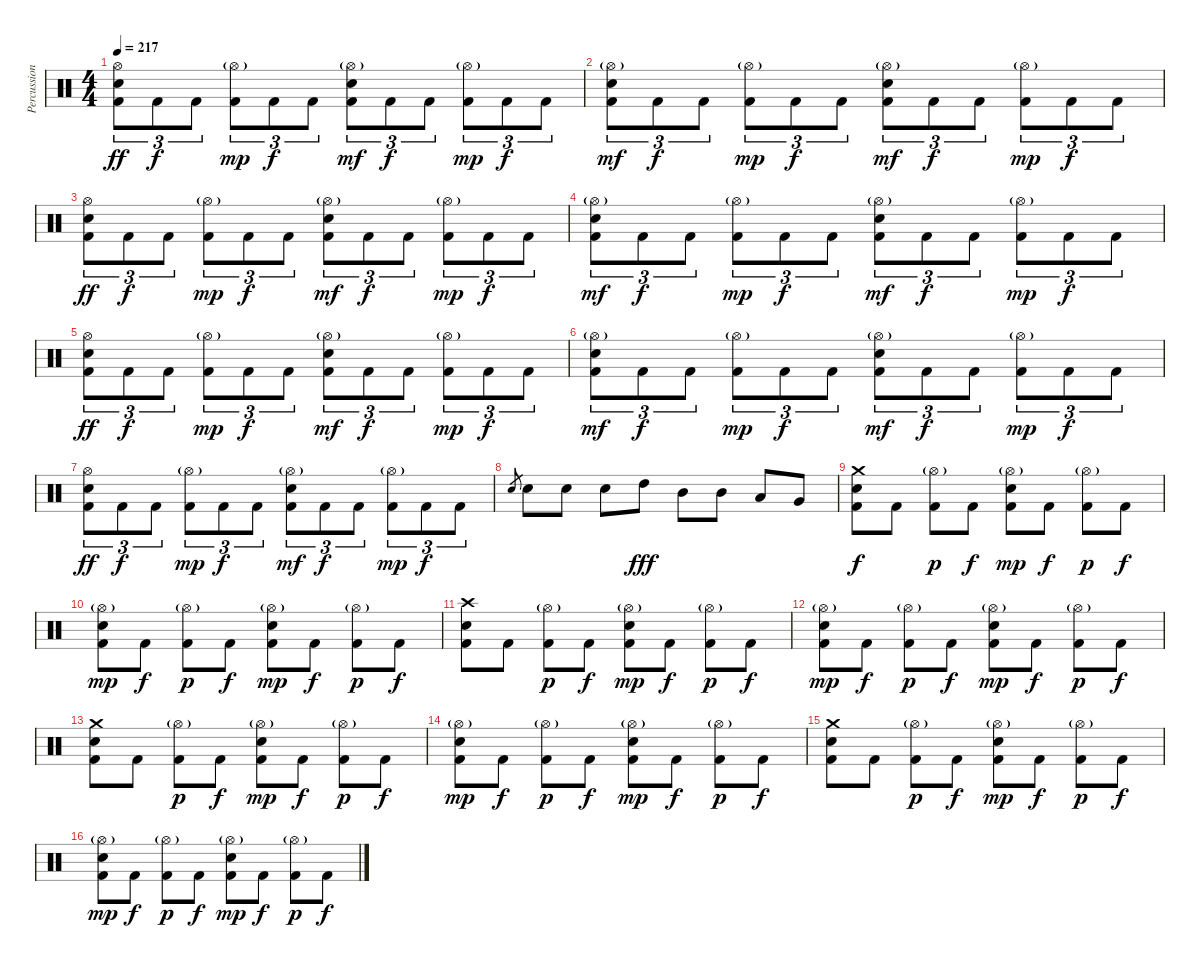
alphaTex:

\track ("Percussion" "Percussion") {instrument percussion}
\staff {score}
\articulation defaults
\ts (4 4)
\tempo 217
\clef neutral
\ks c
("Hi-Hat (open)" "Electric Snare (hit)" "Kick (hit) 2").8{tu (3 2) dy ff} "Kick (hit) 2".8{tu (3 2) dy f} "Kick (hit) 2".8{tu (3 2)} ("Hi-Hat (open)"{g} "Kick (hit) 2").8{tu (3 2) dy mp} "Kick (hit) 2".8{tu (3 2) dy f} "Kick (hit) 2".8{tu (3 2)} ("Hi-Hat (open)"{g} "Electric Snare (hit)" "Kick (hit) 2").8{tu (3 2) dy mf} "Kick (hit) 2".8{tu (3 2) dy f} "Kick (hit) 2".8{tu (3 2)} ("Hi-Hat (open)"{g} "Kick (hit) 2").8{tu (3 2) dy mp} "Kick (hit) 2".8{tu (3 2) dy f} "Kick (hit) 2".8{tu (3 2)} |
("Hi-Hat (open)"{g} "Electric Snare (hit)" "Kick (hit) 2").8{tu (3 2) dy mf} "Kick (hit) 2".8{tu (3 2) dy f} "Kick (hit) 2".8{tu (3 2)} ("Hi-Hat (open)"{g} "Kick (hit) 2").8{tu (3 2) dy mp} "Kick (hit) 2".8{tu (3 2) dy f} "Kick (hit) 2".8{tu (3 2)} ("Hi-Hat (open)"{g} "Electric Snare (hit)" "Kick (hit) 2").8{tu (3 2) dy mf} "Kick (hit) 2".8{tu (3 2) dy f} "Kick (hit) 2".8{tu (3 2)} ("Hi-Hat (open)"{g} "Kick (hit) 2").8{tu (3 2) dy mp} "Kick (hit) 2".8{tu (3 2) dy f} "Kick (hit) 2".8{tu (3 2)} |
("Hi-Hat (open)" "Electric Snare (hit)" "Kick (hit) 2").8{tu (3 2) dy ff} "Kick (hit) 2".8{tu (3 2) dy f} "Kick (hit) 2".8{tu (3 2)} ("Hi-Hat (open)"{g} "Kick (hit) 2").8{tu (3 2) dy mp} "Kick (hit) 2".8{tu (3 2) dy f} "Kick (hit) 2".8{tu (3 2)} ("Hi-Hat (open)"{g} "Electric Snare (hit)" "Kick (hit) 2").8{tu (3 2) dy mf} "Kick (hit) 2".8{tu (3 2) dy f} "Kick (hit) 2".8{tu (3 2)} ("Hi-Hat (open)"{g} "Kick (hit) 2").8{tu (3 2) dy mp} "Kick (hit) 2".8{tu (3 2) dy f} "Kick (hit) 2".8{tu (3 2)} |
("Hi-Hat (open)"{g} "Electric Snare (hit)" "Kick (hit) 2").8{tu (3 2) dy mf} "Kick (hit) 2".8{tu (3 2) dy f} "Kick (hit) 2".8{tu (3 2)} ("Hi-Hat (open)"{g} "Kick (hit) 2").8{tu (3 2) dy mp} "Kick (hit) 2".8{tu (3 2) dy f} "Kick (hit) 2".8{tu (3 2)} ("Hi-Hat (open)"{g} "Electric Snare (hit)" "Kick (hit) 2").8{tu (3 2) dy mf} "Kick (hit) 2".8{tu (3 2) dy f} "Kick (hit) 2".8{tu (3 2)} ("Hi-Hat (open)"{g} "Kick (hit) 2").8{tu (3 2) dy mp} "Kick (hit) 2".8{tu (3 2) dy f} "Kick (hit) 2".8{tu (3 2)} |
("Hi-Hat (open)" "Electric Snare (hit)" "Kick (hit) 2").8{tu (3 2) dy ff} "Kick (hit) 2".8{tu (3 2) dy f} "Kick (hit) 2".8{tu (3 2)} ("Hi-Hat (open)"{g} "Kick (hit) 2").8{tu (3 2) dy mp} "Kick (hit) 2".8{tu (3 2) dy f} "Kick (hit) 2".8{tu (3 2)} ("Hi-Hat (open)"{g} "Electric Snare (hit)" "Kick (hit) 2").8{tu (3 2) dy mf} "Kick (hit) 2".8{tu (3 2) dy f} "Kick (hit) 2".8{tu (3 2)} ("Hi-Hat (open)"{g} "Kick (hit) 2").8{tu (3 2) dy mp} "Kick (hit) 2".8{tu (3 2) dy f} "Kick (hit) 2".8{tu (3 2)} |
("Hi-Hat (open)"{g} "Electric Snare (hit)" "Kick (hit) 2").8{tu (3 2) dy mf} "Kick (hit) 2".8{tu (3 2) dy f} "Kick (hit) 2".8{tu (3 2)} ("Hi-Hat (open)"{g} "Kick (hit) 2").8{tu (3 2) dy mp} "Kick (hit) 2".8{tu (3 2) dy f} "Kick (hit) 2".8{tu (3 2)} ("Hi-Hat (open)"{g} "Electric Snare (hit)" "Kick (hit) 2").8{tu (3 2) dy mf} "Kick (hit) 2".8{tu (3 2) dy f} "Kick (hit) 2".8{tu (3 2)} ("Hi-Hat (open)"{g} "Kick (hit) 2").8{tu (3 2) dy mp} "Kick (hit) 2".8{tu (3 2) dy f} "Kick (hit) 2".8{tu (3 2)} |
("Hi-Hat (open)" "Electric Snare (hit)" "Kick (hit) 2").8{tu (3 2) dy ff} "Kick (hit) 2".8{tu (3 2) dy f} "Kick (hit) 2".8{tu (3 2)} ("Hi-Hat (open)"{g} "Kick (hit) 2").8{tu (3 2) dy mp} "Kick (hit) 2".8{tu (3 2) dy f} "Kick (hit) 2".8{tu (3 2)} ("Hi-Hat (open)"{g} "Electric Snare (hit)" "Kick (hit) 2").8{tu (3 2) dy mf} "Kick (hit) 2".8{tu (3 2) dy f} "Kick (hit) 2".8{tu (3 2)} ("Hi-Hat (open)"{g} "Kick (hit) 2").8{tu (3 2) dy mp} "Kick (hit) 2".8{tu (3 2) dy f} "Kick (hit) 2".8{tu (3 2)} |
"Electric Snare (hit)".8{gr} "Electric Snare (hit)".8 "Electric Snare (hit)".8 "Electric Snare (hit)".8 "High Tom (hit)".8{dy fff} "Mid Tom (hit)".8 "Mid Tom (hit)".8 "Low Tom (hit)".8 "Very Low Tom (hit)".8 |
("Crash medium (hit)" "Electric Snare (hit)" "Kick (hit) 2").8{dy f} "Kick (hit) 2".8 ("Hi-Hat (open)"{g} "Kick (hit) 2").8{dy p} "Kick (hit) 2".8{dy f} ("Hi-Hat (open)"{g} "Electric Snare (hit)" "Kick (hit) 2").8{dy mp} "Kick (hit) 2".8{dy f} ("Hi-Hat (open)"{g} "Kick (hit) 2").8{dy p} "Kick (hit) 2".8{dy f} |
("Hi-Hat (open)"{g} "Electric Snare (hit)" "Kick (hit) 2").8{dy mp} "Kick (hit) 2".8{dy f} ("Hi-Hat (open)"{g} "Kick (hit) 2").8{dy p} "Kick (hit) 2".8{dy f} ("Hi-Hat (open)"{g} "Electric Snare (hit)" "Kick (hit) 2").8{dy mp} "Kick (hit) 2".8{dy f} ("Hi-Hat (open)"{g} "Kick (hit) 2").8{dy p} "Kick (hit) 2".8{dy f} |
("Crash high (hit)" "Electric Snare (hit)" "Kick (hit) 2").8 "Kick (hit) 2".8 ("Hi-Hat (open)"{g} "Kick (hit) 2").8{dy p} "Kick (hit) 2".8{dy f} ("Hi-Hat (open)"{g} "Electric Snare (hit)" "Kick (hit) 2").8{dy mp} "Kick (hit) 2".8{dy f} ("Hi-Hat (open)"{g} "Kick (hit) 2").8{dy p} "Kick (hit) 2".8{dy f} |
("Hi-Hat (open)"{g} "Electric Snare (hit)" "Kick (hit) 2").8{dy mp} "Kick (hit) 2".8{dy f} ("Hi-Hat (open)"{g} "Kick (hit) 2").8{dy p} "Kick (hit) 2".8{dy f} ("Hi-Hat (open)"{g} "Electric Snare (hit)" "Kick (hit) 2").8{dy mp} "Kick (hit) 2".8{dy f} ("Hi-Hat (open)"{g} "Kick (hit) 2").8{dy p} "Kick (hit) 2".8{dy f} |
("Crash medium (hit)" "Electric Snare (hit)" "Kick (hit) 2").8 "Kick (hit) 2".8 ("Hi-Hat (open)"{g} "Kick (hit) 2").8{dy p} "Kick (hit) 2".8{dy f} ("Hi-Hat (open)"{g} "Electric Snare (hit)" "Kick (hit) 2").8{dy mp} "Kick (hit) 2".8{dy f} ("Hi-Hat (open)"{g} "Kick (hit) 2").8{dy p} "Kick (hit) 2".8{dy f} |
("Hi-Hat (open)"{g} "Electric Snare (hit)" "Kick (hit) 2").8{dy mp} "Kick (hit) 2".8{dy f} ("Hi-Hat (open)"{g} "Kick (hit) 2").8{dy p} "Kick (hit) 2".8{dy f} ("Hi-Hat (open)"{g} "Electric Snare (hit)" "Kick (hit) 2").8{dy mp} "Kick (hit) 2".8{dy f} ("Hi-Hat (open)"{g} "Kick (hit) 2").8{dy p} "Kick (hit) 2".8{dy f} |
("Crash medium (hit)" "Electric Snare (hit)" "Kick (hit) 2").8 "Kick (hit) 2".8 ("Hi-Hat (open)"{g} "Kick (hit) 2").8{dy p} "Kick (hit) 2".8{dy f} ("Hi-Hat (open)"{g} "Electric Snare (hit)" "Kick (hit) 2").8{dy mp} "Kick (hit) 2".8{dy f} ("Hi-Hat (open)"{g} "Kick (hit) 2").8{dy p} "Kick (hit) 2".8{dy f} |
("Hi-Hat (open)"{g} "Electric Snare (hit)" "Kick (hit) 2").8{dy mp} "Kick (hit) 2".8{dy f} ("Hi-Hat (open)"{g} "Kick (hit) 2").8{dy p} "Kick (hit) 2".8{dy f} ("Hi-Hat (open)"{g} "Electric Snare (hit)" "Kick (hit) 2").8{dy mp} "Kick (hit) 2".8{dy f} ("Hi-Hat (open)"{g} "Kick (hit) 2").8{dy p} "Kick (hit) 2".8{dy f}
